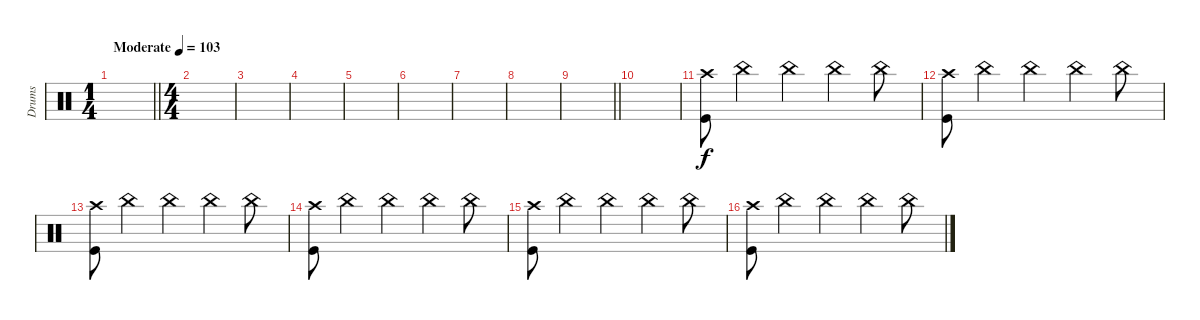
\track ("Drums" "Drums") {instrument percussion}
\staff
\articulation defaults
\ts (1 4)
\tempo (103 "Moderate")
\clef neutral
\barLineRight lightlight
\ks c
|
\ts (4 4)
|
|
|
|
|
|
|
\barLineRight lightlight
|
\section ("" "")
|
("Crash high (hit)" "Kick (hit)").8 "China (hit)".4 "China (hit)".4 "China (hit)".4 "China (hit)".8 |
("Crash high (hit)" "Kick (hit)").8 "China (hit)".4 "China (hit)".4 "China (hit)".4 "China (hit)".8 |
("Crash high (hit)" "Kick (hit)").8 "China (hit)".4 "China (hit)".4 "China (hit)".4 "China (hit)".8 |
("Crash high (hit)" "Kick (hit)").8 "China (hit)".4 "China (hit)".4 "China (hit)".4 "China (hit)".8 |
("Crash high (hit)" "Kick (hit)").8 "China (hit)".4 "China (hit)".4 "China (hit)".4 "China (hit)".8 |
("Crash high (hit)" "Kick (hit)").8 "China (hit)".4 "China (hit)".4 "China (hit)".4 "China (hit)".8
